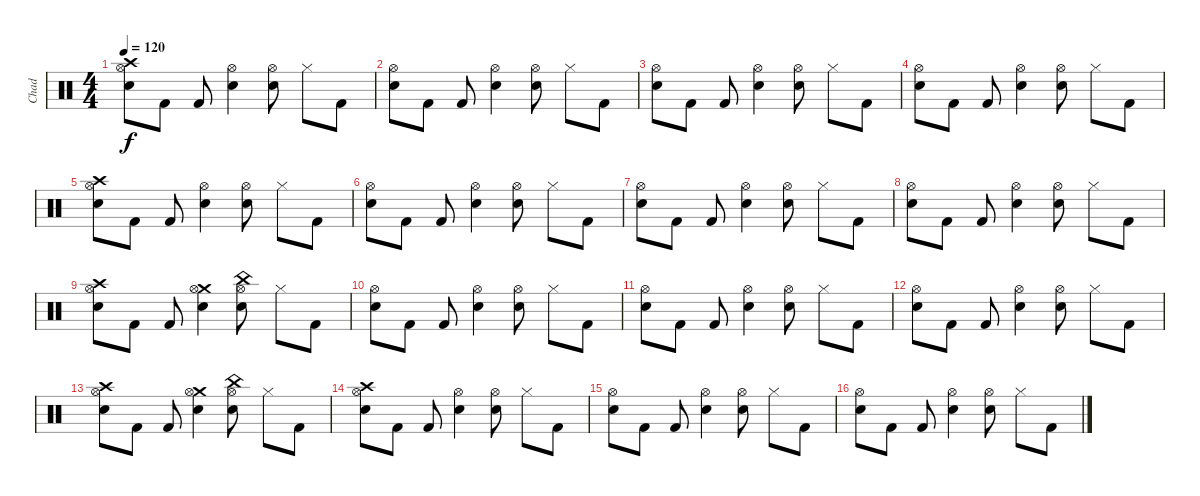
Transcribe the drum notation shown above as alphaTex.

\track ("Chad" "Chad") {instrument percussion}
\staff {score}
\articulation defaults
\ts (4 4)
\tempo 120
\clef neutral
\ks c
("Crash high (hit)" "Hi-Hat (open)" "Electric Snare (hit)").8{dy f} "Kick (hit) 2".8 "Kick (hit) 2".8 ("Hi-Hat (open)" "Electric Snare (hit)").4 ("Hi-Hat (open)" "Electric Snare (hit)").8 "Hi-Hat (closed)".8 "Kick (hit) 2".8 |
("Hi-Hat (open)" "Electric Snare (hit)").8 "Kick (hit) 2".8 "Kick (hit) 2".8 ("Hi-Hat (open)" "Electric Snare (hit)").4 ("Hi-Hat (open)" "Electric Snare (hit)").8 "Hi-Hat (closed)".8 "Kick (hit) 2".8 |
("Hi-Hat (open)" "Electric Snare (hit)").8 "Kick (hit) 2".8 "Kick (hit) 2".8 ("Hi-Hat (open)" "Electric Snare (hit)").4 ("Hi-Hat (open)" "Electric Snare (hit)").8 "Hi-Hat (closed)".8 "Kick (hit) 2".8 |
("Hi-Hat (open)" "Electric Snare (hit)").8 "Kick (hit) 2".8 "Kick (hit) 2".8 ("Hi-Hat (open)" "Electric Snare (hit)").4 ("Hi-Hat (open)" "Electric Snare (hit)").8 "Hi-Hat (closed)".8 "Kick (hit) 2".8 |
("Crash high (hit)" "Hi-Hat (open)" "Electric Snare (hit)").8 "Kick (hit) 2".8 "Kick (hit) 2".8 ("Hi-Hat (open)" "Electric Snare (hit)").4 ("Hi-Hat (open)" "Electric Snare (hit)").8 "Hi-Hat (closed)".8 "Kick (hit) 2".8 |
("Hi-Hat (open)" "Electric Snare (hit)").8 "Kick (hit) 2".8 "Kick (hit) 2".8 ("Hi-Hat (open)" "Electric Snare (hit)").4 ("Hi-Hat (open)" "Electric Snare (hit)").8 "Hi-Hat (closed)".8 "Kick (hit) 2".8 |
("Hi-Hat (open)" "Electric Snare (hit)").8 "Kick (hit) 2".8 "Kick (hit) 2".8 ("Hi-Hat (open)" "Electric Snare (hit)").4 ("Hi-Hat (open)" "Electric Snare (hit)").8 "Hi-Hat (closed)".8 "Kick (hit) 2".8 |
("Hi-Hat (open)" "Electric Snare (hit)").8 "Kick (hit) 2".8 "Kick (hit) 2".8 ("Hi-Hat (open)" "Electric Snare (hit)").4 ("Hi-Hat (open)" "Electric Snare (hit)").8 "Hi-Hat (closed)".8 "Kick (hit) 2".8 |
("Crash high (hit)" "Hi-Hat (open)" "Electric Snare (hit)").8 "Kick (hit) 2".8 "Kick (hit) 2".8 ("Crash medium (hit)" "Hi-Hat (open)" "Electric Snare (hit)").4 ("China (hit)" "Hi-Hat (open)" "Electric Snare (hit)").8 "Hi-Hat (closed)".8 "Kick (hit) 2".8 |
("Hi-Hat (open)" "Electric Snare (hit)").8 "Kick (hit) 2".8 "Kick (hit) 2".8 ("Hi-Hat (open)" "Electric Snare (hit)").4 ("Hi-Hat (open)" "Electric Snare (hit)").8 "Hi-Hat (closed)".8 "Kick (hit) 2".8 |
("Hi-Hat (open)" "Electric Snare (hit)").8 "Kick (hit) 2".8 "Kick (hit) 2".8 ("Hi-Hat (open)" "Electric Snare (hit)").4 ("Hi-Hat (open)" "Electric Snare (hit)").8 "Hi-Hat (closed)".8 "Kick (hit) 2".8 |
("Hi-Hat (open)" "Electric Snare (hit)").8 "Kick (hit) 2".8 "Kick (hit) 2".8 ("Hi-Hat (open)" "Electric Snare (hit)").4 ("Hi-Hat (open)" "Electric Snare (hit)").8 "Hi-Hat (closed)".8 "Kick (hit) 2".8 |
("Crash high (hit)" "Hi-Hat (open)" "Electric Snare (hit)").8 "Kick (hit) 2".8 "Kick (hit) 2".8 ("Crash medium (hit)" "Hi-Hat (open)" "Electric Snare (hit)").4 ("China (hit)" "Hi-Hat (open)" "Electric Snare (hit)").8 "Hi-Hat (closed)".8 "Kick (hit) 2".8 |
("Crash high (hit)" "Hi-Hat (open)" "Electric Snare (hit)").8 "Kick (hit) 2".8 "Kick (hit) 2".8 ("Hi-Hat (open)" "Electric Snare (hit)").4 ("Hi-Hat (open)" "Electric Snare (hit)").8 "Hi-Hat (closed)".8 "Kick (hit) 2".8 |
("Hi-Hat (open)" "Electric Snare (hit)").8 "Kick (hit) 2".8 "Kick (hit) 2".8 ("Hi-Hat (open)" "Electric Snare (hit)").4 ("Hi-Hat (open)" "Electric Snare (hit)").8 "Hi-Hat (closed)".8 "Kick (hit) 2".8 |
("Hi-Hat (open)" "Electric Snare (hit)").8 "Kick (hit) 2".8 "Kick (hit) 2".8 ("Hi-Hat (open)" "Electric Snare (hit)").4 ("Hi-Hat (open)" "Electric Snare (hit)").8 "Hi-Hat (closed)".8 "Kick (hit) 2".8
